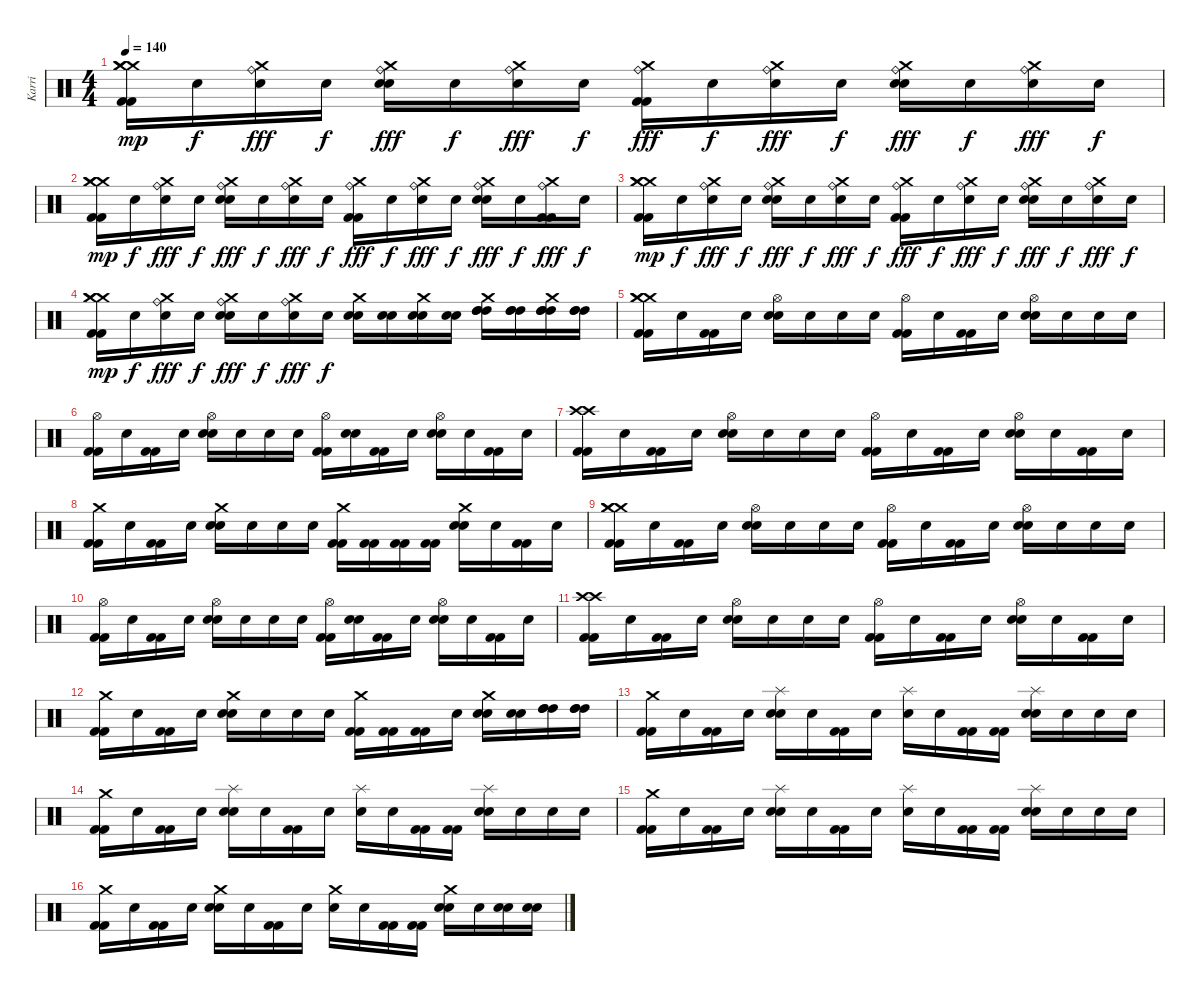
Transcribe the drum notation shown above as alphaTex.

\track ("Karri" "Karri") {instrument percussion}
\staff {score}
\articulation defaults
\ts (4 4)
\tempo 140
\clef neutral
\ks c
("Crash medium (hit)" "Crash medium (hit)" "Crash medium (hit)" "Kick (hit) 2" "Kick (hit) 2").16{dy mp} "Snare (hit)"{x}.16{dy f} ("Ride (bell)" "Crash medium (hit)"{x} "Snare (hit)"{x}).16{dy fff} "Snare (hit)"{x}.16{dy f} ("Ride (bell)" "Crash medium (hit)"{x} "Snare (hit) 2" "Snare (hit) 2").16{dy fff} "Snare (hit)"{x}.16{dy f} ("Ride (bell)" "Crash medium (hit)"{x} "Snare (hit)"{x}).16{dy fff} "Snare (hit)"{x}.16{dy f} ("Ride (bell)" "Crash medium (hit)"{x} "Kick (hit) 2" "Kick (hit) 2").16{dy fff} "Snare (hit)"{x}.16{dy f} ("Ride (bell)" "Crash medium (hit)"{x} "Snare (hit)"{x}).16{dy fff} "Snare (hit)"{x}.16{dy f} ("Ride (bell)" "Crash medium (hit)"{x} "Snare (hit) 2" "Snare (hit) 2").16{dy fff} "Snare (hit)"{x}.16{dy f} ("Ride (bell)" "Crash medium (hit)"{x} "Snare (hit)"{x}).16{dy fff} "Snare (hit)"{x}.16{dy f} |
("Crash medium (hit)" "Crash medium (hit)" "Crash medium (hit)" "Kick (hit) 2" "Kick (hit) 2").16{dy mp} "Snare (hit)"{x}.16{dy f} ("Ride (bell)" "Crash medium (hit)"{x} "Snare (hit)"{x}).16{dy fff} "Snare (hit)"{x}.16{dy f} ("Ride (bell)" "Crash medium (hit)"{x} "Snare (hit) 2" "Snare (hit) 2").16{dy fff} "Snare (hit)"{x}.16{dy f} ("Ride (bell)" "Crash medium (hit)"{x} "Snare (hit)"{x}).16{dy fff} "Snare (hit)"{x}.16{dy f} ("Ride (bell)" "Crash medium (hit)"{x} "Kick (hit) 2" "Kick (hit) 2").16{dy fff} "Snare (hit)"{x}.16{dy f} ("Ride (bell)" "Crash medium (hit)"{x} "Snare (hit)"{x}).16{dy fff} "Snare (hit)"{x}.16{dy f} ("Ride (bell)" "Crash medium (hit)"{x} "Snare (hit) 2" "Snare (hit) 2").16{dy fff} "Snare (hit)"{x}.16{dy f} ("Ride (bell)" "Crash medium (hit)"{x} "Kick (hit) 2" "Kick (hit) 2").16{dy fff} "Snare (hit)"{x}.16{dy f} |
("Crash medium (hit)" "Crash medium (hit)" "Crash medium (hit)" "Kick (hit) 2" "Kick (hit) 2").16{dy mp} "Snare (hit)"{x}.16{dy f} ("Ride (bell)" "Crash medium (hit)"{x} "Snare (hit)"{x}).16{dy fff} "Snare (hit)"{x}.16{dy f} ("Ride (bell)" "Crash medium (hit)"{x} "Snare (hit) 2" "Snare (hit) 2").16{dy fff} "Snare (hit)"{x}.16{dy f} ("Ride (bell)" "Crash medium (hit)"{x} "Snare (hit)"{x}).16{dy fff} "Snare (hit)"{x}.16{dy f} ("Ride (bell)" "Crash medium (hit)"{x} "Kick (hit) 2" "Kick (hit) 2").16{dy fff} "Snare (hit)"{x}.16{dy f} ("Ride (bell)" "Crash medium (hit)"{x} "Snare (hit)"{x}).16{dy fff} "Snare (hit)"{x}.16{dy f} ("Ride (bell)" "Crash medium (hit)"{x} "Snare (hit) 2" "Snare (hit) 2").16{dy fff} "Snare (hit)"{x}.16{dy f} ("Ride (bell)" "Crash medium (hit)"{x} "Snare (hit)"{x}).16{dy fff} "Snare (hit)"{x}.16{dy f} |
("Crash medium (hit)" "Crash medium (hit)" "Crash medium (hit)" "Kick (hit) 2" "Kick (hit) 2").16{dy mp} "Snare (hit)"{x}.16{dy f} ("Ride (bell)" "Crash medium (hit)"{x} "Snare (hit)"{x}).16{dy fff} "Snare (hit)"{x}.16{dy f} ("Ride (bell)" "Crash medium (hit)"{x} "Snare (hit) 2" "Snare (hit) 2").16{dy fff} "Snare (hit)"{x}.16{dy f} ("Ride (bell)" "Crash medium (hit)"{x} "Snare (hit)"{x}).16{dy fff} "Snare (hit)"{x}.16{dy f} ("Crash medium (hit)"{x} "Snare (hit) 2" "Snare (hit) 2").16 ("Snare (hit) 2" "Snare (hit) 2").16 ("Crash medium (hit)"{x} "Snare (hit) 2" "Snare (hit) 2").16 ("Snare (hit) 2" "Snare (hit) 2").16 ("Crash medium (hit)"{x} "High Tom (hit)" "High Tom (hit)" "High Tom (hit)").16 ("High Tom (hit)" "High Tom (hit)" "High Tom (hit)").16 ("Crash medium (hit)"{x} "High Tom (hit)" "High Tom (hit)" "High Tom (hit)").16 ("High Tom (hit)" "High Tom (hit)" "High Tom (hit)").16 |
("Crash medium (hit)" "Crash medium (hit)" "Crash medium (hit)" "Kick (hit) 2" "Kick (hit) 2").16 "Snare (hit)"{x}.16 ("Kick (hit) 2"{x} "Kick (hit) 2"{x}).16 "Snare (hit)"{x}.16 ("Hi-Hat (open)" "Snare (hit) 2" "Snare (hit) 2").16 "Snare (hit)"{x}.16 "Snare (hit)"{x}.16 "Snare (hit)"{x}.16 ("Hi-Hat (open)" "Kick (hit) 2" "Kick (hit) 2").16 "Snare (hit)"{x}.16 ("Kick (hit) 2" "Kick (hit) 2").16 "Snare (hit)"{x}.16 ("Hi-Hat (open)" "Snare (hit) 2" "Snare (hit) 2").16 "Snare (hit)"{x}.16 "Snare (hit)"{x}.16 "Snare (hit)"{x}.16 |
("Hi-Hat (open)" "Kick (hit) 2" "Kick (hit) 2").16 "Snare (hit)"{x}.16 ("Kick (hit) 2"{x} "Kick (hit) 2"{x}).16 "Snare (hit)"{x}.16 ("Hi-Hat (open)" "Snare (hit) 2" "Snare (hit) 2").16 "Snare (hit)"{x}.16 "Snare (hit)"{x}.16 "Snare (hit)"{x}.16 ("Hi-Hat (open)" "Kick (hit) 2" "Kick (hit) 2").16 ("Snare (hit)"{x} "Snare (hit)"{x}).16 ("Kick (hit) 2" "Kick (hit) 2").16 "Snare (hit)"{x}.16 ("Hi-Hat (open)" "Snare (hit) 2" "Snare (hit) 2").16 "Snare (hit)"{x}.16 ("Kick (hit) 2" "Kick (hit) 2").16 "Snare (hit)"{x}.16 |
("Crash high (hit)" "Crash high (hit)" "Kick (hit) 2" "Kick (hit) 2").16 "Snare (hit)"{x}.16 ("Kick (hit) 2"{x} "Kick (hit) 2"{x}).16 "Snare (hit)"{x}.16 ("Hi-Hat (open)" "Snare (hit) 2" "Snare (hit) 2").16 "Snare (hit)"{x}.16 "Snare (hit)"{x}.16 "Snare (hit)"{x}.16 ("Hi-Hat (open)" "Kick (hit) 2" "Kick (hit) 2").16 "Snare (hit)"{x}.16 ("Kick (hit) 2" "Kick (hit) 2").16 "Snare (hit)"{x}.16 ("Hi-Hat (open)" "Snare (hit) 2" "Snare (hit) 2").16 "Snare (hit)"{x}.16 ("Kick (hit) 2" "Kick (hit) 2").16 "Snare (hit)"{x}.16 |
("Crash medium (hit)" "Kick (hit) 2" "Kick (hit) 2").16 "Snare (hit)"{x}.16 ("Kick (hit) 2" "Kick (hit) 2").16 "Snare (hit)"{x}.16 ("Crash medium (hit)" "Snare (hit) 2" "Snare (hit) 2").16 "Snare (hit)"{x}.16 "Snare (hit)"{x}.16 "Snare (hit)"{x}.16 ("Crash medium (hit)" "Kick (hit) 2"{x} "Kick (hit) 2"{x}).16 ("Kick (hit) 2"{x} "Kick (hit) 2"{x}).16 ("Kick (hit) 2" "Kick (hit) 2").16 ("Kick (hit) 2" "Kick (hit) 2").16 ("Crash medium (hit)" "Snare (hit) 2" "Snare (hit) 2").16 "Snare (hit)"{x}.16 ("Kick (hit) 2" "Kick (hit) 2").16 "Snare (hit)"{x}.16 |
("Crash medium (hit)" "Crash medium (hit)" "Crash medium (hit)" "Kick (hit) 2" "Kick (hit) 2").16 "Snare (hit)"{x}.16 ("Kick (hit) 2"{x} "Kick (hit) 2"{x}).16 "Snare (hit)"{x}.16 ("Hi-Hat (open)" "Snare (hit) 2" "Snare (hit) 2").16 "Snare (hit)"{x}.16 "Snare (hit)"{x}.16 "Snare (hit)"{x}.16 ("Hi-Hat (open)" "Kick (hit) 2" "Kick (hit) 2").16 "Snare (hit)"{x}.16 ("Kick (hit) 2" "Kick (hit) 2").16 "Snare (hit)"{x}.16 ("Hi-Hat (open)" "Snare (hit) 2" "Snare (hit) 2").16 "Snare (hit)"{x}.16 "Snare (hit)"{x}.16 "Snare (hit)"{x}.16 |
("Hi-Hat (open)" "Kick (hit) 2" "Kick (hit) 2").16 "Snare (hit)"{x}.16 ("Kick (hit) 2"{x} "Kick (hit) 2"{x}).16 "Snare (hit)"{x}.16 ("Hi-Hat (open)" "Snare (hit) 2" "Snare (hit) 2").16 "Snare (hit)"{x}.16 "Snare (hit)"{x}.16 "Snare (hit)"{x}.16 ("Hi-Hat (open)" "Kick (hit) 2" "Kick (hit) 2").16 ("Snare (hit)"{x} "Snare (hit)"{x}).16 ("Kick (hit) 2" "Kick (hit) 2").16 "Snare (hit)"{x}.16 ("Hi-Hat (open)" "Snare (hit) 2" "Snare (hit) 2").16 "Snare (hit)"{x}.16 ("Kick (hit) 2" "Kick (hit) 2").16 "Snare (hit)"{x}.16 |
("Crash high (hit)" "Crash high (hit)" "Kick (hit) 2" "Kick (hit) 2").16 "Snare (hit)"{x}.16 ("Kick (hit) 2"{x} "Kick (hit) 2"{x}).16 "Snare (hit)"{x}.16 ("Hi-Hat (open)" "Snare (hit) 2" "Snare (hit) 2").16 "Snare (hit)"{x}.16 "Snare (hit)"{x}.16 "Snare (hit)"{x}.16 ("Hi-Hat (open)" "Kick (hit) 2" "Kick (hit) 2").16 "Snare (hit)"{x}.16 ("Kick (hit) 2" "Kick (hit) 2").16 "Snare (hit)"{x}.16 ("Hi-Hat (open)" "Snare (hit) 2" "Snare (hit) 2").16 "Snare (hit)"{x}.16 ("Kick (hit) 2"{x} "Kick (hit) 2"{x}).16 "Snare (hit)"{x}.16 |
("Crash medium (hit)" "Kick (hit) 2" "Kick (hit) 2").16 "Snare (hit)"{x}.16 ("Kick (hit) 2"{x} "Kick (hit) 2"{x}).16 "Snare (hit)"{x}.16 ("Crash medium (hit)" "Snare (hit) 2" "Snare (hit) 2").16 "Snare (hit)"{x}.16 "Snare (hit)"{x}.16 "Snare (hit)"{x}.16 ("Crash medium (hit)" "Kick (hit) 2" "Kick (hit) 2").16 ("Kick (hit) 2"{x} "Kick (hit) 2"{x}).16 ("Kick (hit) 2"{x} "Kick (hit) 2"{x}).16 "Snare (hit) 2"{x}.16 ("Crash medium (hit)" "Snare (hit) 2" "Snare (hit) 2").16 ("Snare (hit) 2" "Snare (hit) 2").16 ("High Tom (hit)" "High Tom (hit)" "High Tom (hit)").16 ("High Tom (hit)" "High Tom (hit)" "High Tom (hit)").16 |
("Crash medium (hit)" "Kick (hit) 2" "Kick (hit) 2").16 "Snare (hit)"{x}.16 ("Kick (hit) 2" "Kick (hit) 2").16 "Snare (hit)"{x}.16 ("Splash (hit)" "Snare (hit) 2" "Snare (hit) 2").16 "Snare (hit)"{x}.16 ("Kick (hit) 2" "Kick (hit) 2").16 "Snare (hit)"{x}.16 ("Splash (hit)" "Snare (hit)"{x}).16 "Snare (hit)"{x}.16 ("Kick (hit) 2" "Kick (hit) 2").16 ("Kick (hit) 2" "Kick (hit) 2").16 ("Splash (hit)" "Snare (hit) 2" "Snare (hit) 2").16 "Snare (hit)"{x}.16 "Snare (hit)"{x}.16 "Snare (hit)"{x}.16 |
("Crash medium (hit)" "Kick (hit) 2" "Kick (hit) 2").16 "Snare (hit)"{x}.16 ("Kick (hit) 2" "Kick (hit) 2").16 "Snare (hit)"{x}.16 ("Splash (hit)" "Snare (hit) 2" "Snare (hit) 2").16 "Snare (hit)"{x}.16 ("Kick (hit) 2" "Kick (hit) 2").16 "Snare (hit)"{x}.16 ("Splash (hit)" "Snare (hit)"{x}).16 "Snare (hit)"{x}.16 ("Kick (hit) 2" "Kick (hit) 2").16 ("Kick (hit) 2" "Kick (hit) 2").16 ("Splash (hit)" "Snare (hit) 2" "Snare (hit) 2").16 "Snare (hit)"{x}.16 "Snare (hit)"{x}.16 "Snare (hit)"{x}.16 |
("Crash medium (hit)" "Kick (hit) 2" "Kick (hit) 2").16 "Snare (hit)"{x}.16 ("Kick (hit) 2" "Kick (hit) 2").16 "Snare (hit)"{x}.16 ("Splash (hit)" "Snare (hit) 2" "Snare (hit) 2").16 "Snare (hit)"{x}.16 ("Kick (hit) 2" "Kick (hit) 2").16 "Snare (hit)"{x}.16 ("Splash (hit)" "Snare (hit)"{x}).16 "Snare (hit)"{x}.16 ("Kick (hit) 2" "Kick (hit) 2").16 ("Kick (hit) 2" "Kick (hit) 2").16 ("Splash (hit)" "Snare (hit) 2" "Snare (hit) 2").16 "Snare (hit)"{x}.16 "Snare (hit)"{x}.16 "Snare (hit)"{x}.16 |
("Crash medium (hit)" "Kick (hit) 2" "Kick (hit) 2").16 "Snare (hit)"{x}.16 ("Kick (hit) 2" "Kick (hit) 2").16 "Snare (hit)"{x}.16 ("Crash medium (hit)" "Snare (hit) 2" "Snare (hit) 2").16 "Snare (hit)"{x}.16 ("Kick (hit) 2" "Kick (hit) 2").16 "Snare (hit)"{x}.16 ("Crash medium (hit)" "Snare (hit)"{x}).16 "Snare (hit)"{x}.16 ("Kick (hit) 2" "Kick (hit) 2").16 ("Kick (hit) 2" "Kick (hit) 2").16 ("Crash medium (hit)" "Snare (hit) 2" "Snare (hit) 2").16 "Snare (hit)"{x}.16 ("Snare (hit) 2" "Snare (hit) 2").16 ("Snare (hit) 2" "Snare (hit) 2").16
